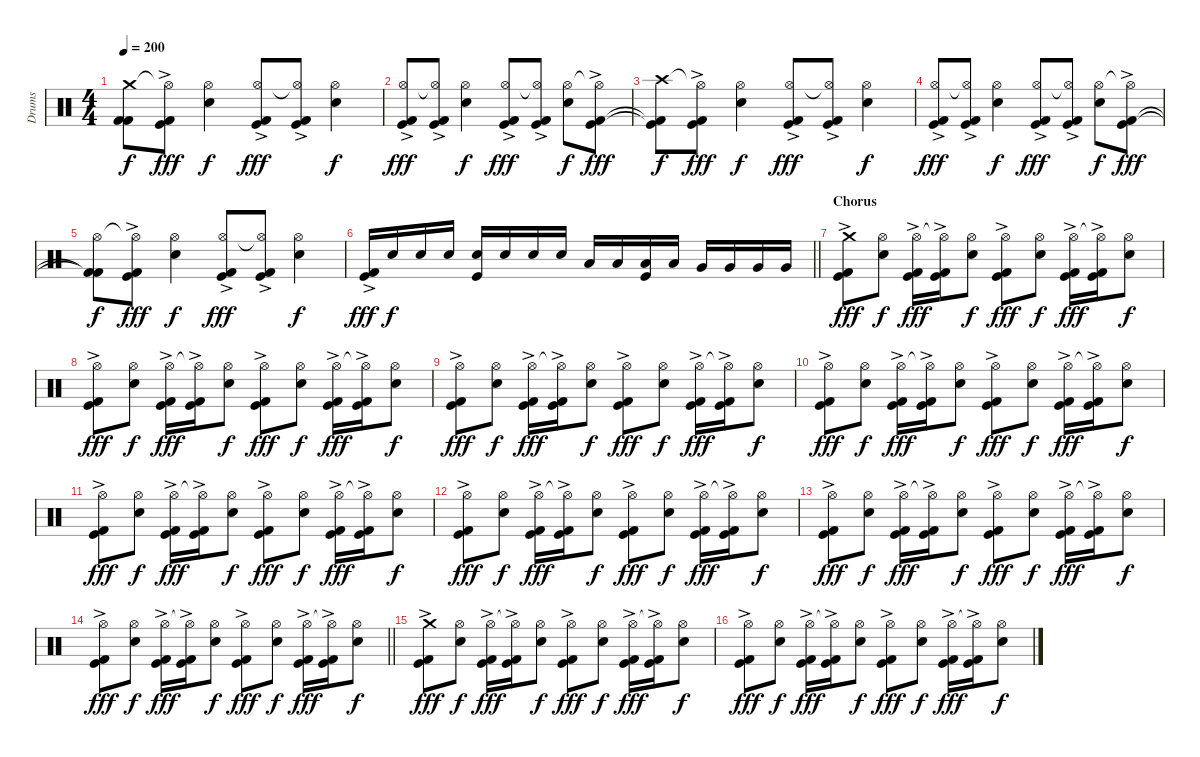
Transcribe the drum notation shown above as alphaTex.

\track ("Drums" "Drums") {instrument percussion}
\staff {score}
\articulation defaults
\ts (4 4)
\tempo 200
\clef neutral
\ks c
("Crash medium (hit)" "Kick (hit) 2"{t} "Kick (hit) 2"{t}).8{dy f} ("Hi-Hat (open)"{t} "Kick (hit)" "Kick (hit) 2"{ac}).8{dy fff} ("Hi-Hat (open)" "Electric Snare (hit)").4{dy f} ("Hi-Hat (open)" "Kick (hit)" "Kick (hit) 2"{ac}).8{dy fff} ("Hi-Hat (open)"{t} "Kick (hit)" "Kick (hit) 2"{ac}).8 ("Hi-Hat (open)" "Electric Snare (hit)").4{dy f} |
("Hi-Hat (open)" "Kick (hit)" "Kick (hit) 2"{ac}).8{dy fff} ("Hi-Hat (open)"{t} "Kick (hit)" "Kick (hit) 2"{ac}).8 ("Hi-Hat (open)" "Electric Snare (hit)").4{dy f} ("Hi-Hat (open)" "Kick (hit)" "Kick (hit) 2"{ac}).8{dy fff} ("Hi-Hat (open)"{t} "Kick (hit)" "Kick (hit) 2"{ac}).8 ("Hi-Hat (open)" "Electric Snare (hit)").8{dy f} ("Hi-Hat (open)"{t} "Kick (hit)" "Kick (hit) 2"{ac}).8{dy fff} |
("Crash high (hit)" "Kick (hit)"{t} "Kick (hit) 2"{t}).8{dy f} ("Hi-Hat (open)"{t} "Kick (hit)" "Kick (hit) 2"{ac}).8{dy fff} ("Hi-Hat (open)" "Electric Snare (hit)").4{dy f} ("Hi-Hat (open)" "Kick (hit)" "Kick (hit) 2"{ac}).8{dy fff} ("Hi-Hat (open)"{t} "Kick (hit)" "Kick (hit) 2"{ac}).8 ("Hi-Hat (open)" "Electric Snare (hit)").4{dy f} |
("Hi-Hat (open)" "Kick (hit)" "Kick (hit) 2"{ac}).8{dy fff} ("Hi-Hat (open)"{t} "Kick (hit)" "Kick (hit) 2"{ac}).8 ("Hi-Hat (open)" "Electric Snare (hit)").4{dy f} ("Hi-Hat (open)" "Kick (hit)" "Kick (hit) 2"{ac}).8{dy fff} ("Hi-Hat (open)"{t} "Kick (hit)" "Kick (hit) 2"{ac}).8 ("Hi-Hat (open)" "Electric Snare (hit)").8{dy f} ("Hi-Hat (open)"{t} "Kick (hit)" "Kick (hit) 2"{ac}).8{dy fff} |
("Hi-Hat (open)" "Kick (hit) 2"{t} "Kick (hit) 2"{t}).8{dy f} ("Hi-Hat (open)"{t} "Kick (hit)" "Kick (hit) 2"{ac}).8{dy fff} ("Hi-Hat (open)" "Electric Snare (hit)").4{dy f} ("Hi-Hat (open)" "Kick (hit)" "Kick (hit) 2"{ac}).8{dy fff} ("Hi-Hat (open)"{t} "Kick (hit)" "Kick (hit) 2"{ac}).8 ("Hi-Hat (open)" "Electric Snare (hit)").4{dy f} |
\barLineRight lightlight
("Kick (hit)" "Kick (hit) 2"{ac}).16{dy fff} "Electric Snare (hit)".16{dy f} "Electric Snare (hit)".16 "Electric Snare (hit)".16 ("Electric Snare (hit)" "Kick (hit)").16 "Electric Snare (hit)".16 "Electric Snare (hit)".16 "Electric Snare (hit)".16 "Low Tom (hit)".16 "Low Tom (hit)".16 ("Low Tom (hit)" "Kick (hit)").16 "Low Tom (hit)".16 "Very Low Tom (hit)".16 "Very Low Tom (hit)".16 "Very Low Tom (hit)".16 "Very Low Tom (hit)".16 |
\section ("" "Chorus")
("Crash medium (hit)" "Kick (hit)" "Kick (hit) 2"{ac}).8{dy fff} ("Hi-Hat (open)" "Electric Snare (hit)").8{dy f} ("Hi-Hat (open)" "Kick (hit)" "Kick (hit) 2"{ac}).16{dy fff} ("Hi-Hat (open)"{t} "Kick (hit)" "Kick (hit) 2"{ac}).16 ("Hi-Hat (open)" "Electric Snare (hit)").8{dy f} ("Hi-Hat (open)" "Kick (hit)" "Kick (hit) 2"{ac}).8{dy fff} ("Hi-Hat (open)" "Electric Snare (hit)").8{dy f} ("Hi-Hat (open)" "Kick (hit)" "Kick (hit) 2"{ac}).16{dy fff} ("Hi-Hat (open)"{t} "Kick (hit)" "Kick (hit) 2"{ac}).16 ("Hi-Hat (open)" "Electric Snare (hit)").8{dy f} |
("Hi-Hat (open)" "Kick (hit)" "Kick (hit) 2"{ac}).8{dy fff} ("Hi-Hat (open)" "Electric Snare (hit)").8{dy f} ("Hi-Hat (open)" "Kick (hit)" "Kick (hit) 2"{ac}).16{dy fff} ("Hi-Hat (open)"{t} "Kick (hit)" "Kick (hit) 2"{ac}).16 ("Hi-Hat (open)" "Electric Snare (hit)").8{dy f} ("Hi-Hat (open)" "Kick (hit)" "Kick (hit) 2"{ac}).8{dy fff} ("Hi-Hat (open)" "Electric Snare (hit)").8{dy f} ("Hi-Hat (open)" "Kick (hit)" "Kick (hit) 2"{ac}).16{dy fff} ("Hi-Hat (open)"{t} "Kick (hit)" "Kick (hit) 2"{ac}).16 ("Hi-Hat (open)" "Electric Snare (hit)").8{dy f} |
("Hi-Hat (open)" "Kick (hit)" "Kick (hit) 2"{ac}).8{dy fff} ("Hi-Hat (open)" "Electric Snare (hit)").8{dy f} ("Hi-Hat (open)" "Kick (hit)" "Kick (hit) 2"{ac}).16{dy fff} ("Hi-Hat (open)"{t} "Kick (hit)" "Kick (hit) 2"{ac}).16 ("Hi-Hat (open)" "Electric Snare (hit)").8{dy f} ("Hi-Hat (open)" "Kick (hit)" "Kick (hit) 2"{ac}).8{dy fff} ("Hi-Hat (open)" "Electric Snare (hit)").8{dy f} ("Hi-Hat (open)" "Kick (hit)" "Kick (hit) 2"{ac}).16{dy fff} ("Hi-Hat (open)"{t} "Kick (hit)" "Kick (hit) 2"{ac}).16 ("Hi-Hat (open)" "Electric Snare (hit)").8{dy f} |
("Hi-Hat (open)" "Kick (hit)" "Kick (hit) 2"{ac}).8{dy fff} ("Hi-Hat (open)" "Electric Snare (hit)").8{dy f} ("Hi-Hat (open)" "Kick (hit)" "Kick (hit) 2"{ac}).16{dy fff} ("Hi-Hat (open)"{t} "Kick (hit)" "Kick (hit) 2"{ac}).16 ("Hi-Hat (open)" "Electric Snare (hit)").8{dy f} ("Hi-Hat (open)" "Kick (hit)" "Kick (hit) 2"{ac}).8{dy fff} ("Hi-Hat (open)" "Electric Snare (hit)").8{dy f} ("Hi-Hat (open)" "Kick (hit)" "Kick (hit) 2"{ac}).16{dy fff} ("Hi-Hat (open)"{t} "Kick (hit)" "Kick (hit) 2"{ac}).16 ("Hi-Hat (open)" "Electric Snare (hit)").8{dy f} |
("Hi-Hat (open)" "Kick (hit)" "Kick (hit) 2"{ac}).8{dy fff} ("Hi-Hat (open)" "Electric Snare (hit)").8{dy f} ("Hi-Hat (open)" "Kick (hit)" "Kick (hit) 2"{ac}).16{dy fff} ("Hi-Hat (open)"{t} "Kick (hit)" "Kick (hit) 2"{ac}).16 ("Hi-Hat (open)" "Electric Snare (hit)").8{dy f} ("Hi-Hat (open)" "Kick (hit)" "Kick (hit) 2"{ac}).8{dy fff} ("Hi-Hat (open)" "Electric Snare (hit)").8{dy f} ("Hi-Hat (open)" "Kick (hit)" "Kick (hit) 2"{ac}).16{dy fff} ("Hi-Hat (open)"{t} "Kick (hit)" "Kick (hit) 2"{ac}).16 ("Hi-Hat (open)" "Electric Snare (hit)").8{dy f} |
("Hi-Hat (open)" "Kick (hit)" "Kick (hit) 2"{ac}).8{dy fff} ("Hi-Hat (open)" "Electric Snare (hit)").8{dy f} ("Hi-Hat (open)" "Kick (hit)" "Kick (hit) 2"{ac}).16{dy fff} ("Hi-Hat (open)"{t} "Kick (hit)" "Kick (hit) 2"{ac}).16 ("Hi-Hat (open)" "Electric Snare (hit)").8{dy f} ("Hi-Hat (open)" "Kick (hit)" "Kick (hit) 2"{ac}).8{dy fff} ("Hi-Hat (open)" "Electric Snare (hit)").8{dy f} ("Hi-Hat (open)" "Kick (hit)" "Kick (hit) 2"{ac}).16{dy fff} ("Hi-Hat (open)"{t} "Kick (hit)" "Kick (hit) 2"{ac}).16 ("Hi-Hat (open)" "Electric Snare (hit)").8{dy f} |
("Hi-Hat (open)" "Kick (hit)" "Kick (hit) 2"{ac}).8{dy fff} ("Hi-Hat (open)" "Electric Snare (hit)").8{dy f} ("Hi-Hat (open)" "Kick (hit)" "Kick (hit) 2"{ac}).16{dy fff} ("Hi-Hat (open)"{t} "Kick (hit)" "Kick (hit) 2"{ac}).16 ("Hi-Hat (open)" "Electric Snare (hit)").8{dy f} ("Hi-Hat (open)" "Kick (hit)" "Kick (hit) 2"{ac}).8{dy fff} ("Hi-Hat (open)" "Electric Snare (hit)").8{dy f} ("Hi-Hat (open)" "Kick (hit)" "Kick (hit) 2"{ac}).16{dy fff} ("Hi-Hat (open)"{t} "Kick (hit)" "Kick (hit) 2"{ac}).16 ("Hi-Hat (open)" "Electric Snare (hit)").8{dy f} |
\barLineRight lightlight
("Hi-Hat (open)" "Kick (hit)" "Kick (hit) 2"{ac}).8{dy fff} ("Hi-Hat (open)" "Electric Snare (hit)").8{dy f} ("Hi-Hat (open)" "Kick (hit)" "Kick (hit) 2"{ac}).16{dy fff} ("Hi-Hat (open)"{t} "Kick (hit)" "Kick (hit) 2"{ac}).16 ("Hi-Hat (open)" "Electric Snare (hit)").8{dy f} ("Hi-Hat (open)" "Kick (hit)" "Kick (hit) 2"{ac}).8{dy fff} ("Hi-Hat (open)" "Electric Snare (hit)").8{dy f} ("Hi-Hat (open)" "Kick (hit)" "Kick (hit) 2"{ac}).16{dy fff} ("Hi-Hat (open)"{t} "Kick (hit)" "Kick (hit) 2"{ac}).16 ("Hi-Hat (open)" "Electric Snare (hit)").8{dy f} |
("Crash medium (hit)" "Kick (hit)" "Kick (hit) 2"{ac}).8{dy fff} ("Hi-Hat (open)" "Electric Snare (hit)").8{dy f} ("Hi-Hat (open)" "Kick (hit)" "Kick (hit) 2"{ac}).16{dy fff} ("Hi-Hat (open)"{t} "Kick (hit)" "Kick (hit) 2"{ac}).16 ("Hi-Hat (open)" "Electric Snare (hit)").8{dy f} ("Hi-Hat (open)" "Kick (hit)" "Kick (hit) 2"{ac}).8{dy fff} ("Hi-Hat (open)" "Electric Snare (hit)").8{dy f} ("Hi-Hat (open)" "Kick (hit)" "Kick (hit) 2"{ac}).16{dy fff} ("Hi-Hat (open)"{t} "Kick (hit)" "Kick (hit) 2"{ac}).16 ("Hi-Hat (open)" "Electric Snare (hit)").8{dy f} |
("Hi-Hat (open)" "Kick (hit)" "Kick (hit) 2"{ac}).8{dy fff} ("Hi-Hat (open)" "Electric Snare (hit)").8{dy f} ("Hi-Hat (open)" "Kick (hit)" "Kick (hit) 2"{ac}).16{dy fff} ("Hi-Hat (open)"{t} "Kick (hit)" "Kick (hit) 2"{ac}).16 ("Hi-Hat (open)" "Electric Snare (hit)").8{dy f} ("Hi-Hat (open)" "Kick (hit)" "Kick (hit) 2"{ac}).8{dy fff} ("Hi-Hat (open)" "Electric Snare (hit)").8{dy f} ("Hi-Hat (open)" "Kick (hit)" "Kick (hit) 2"{ac}).16{dy fff} ("Hi-Hat (open)"{t} "Kick (hit)" "Kick (hit) 2"{ac}).16 ("Hi-Hat (open)" "Electric Snare (hit)").8{dy f}
